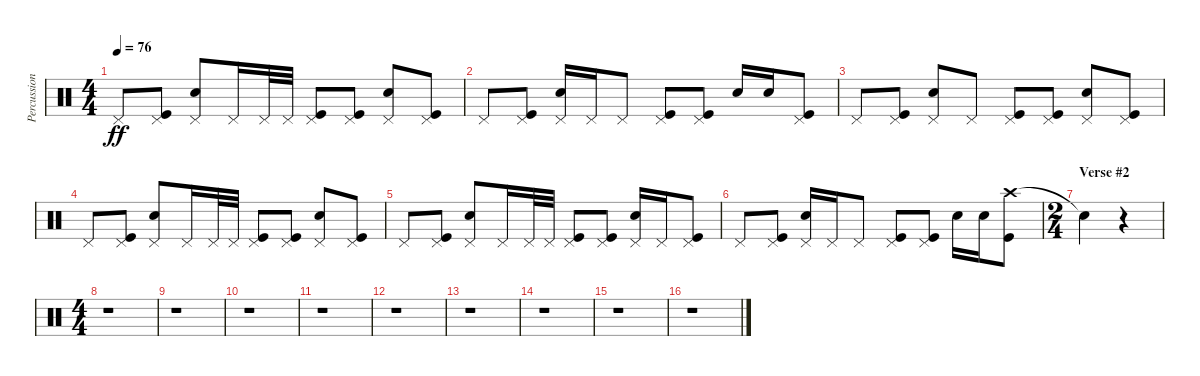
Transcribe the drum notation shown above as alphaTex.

\track ("Percussion" "Percussion") {instrument percussion}
\staff {score}
\articulation defaults
\ts (4 4)
\tempo 76
\clef neutral
\ks c "Pedal Hi-Hat (hit)".8{dy ff}
("Pedal Hi-Hat (hit)" "Kick (hit)").8 ("Pedal Hi-Hat (hit)" "Snare (hit) 2").8 "Pedal Hi-Hat (hit)".16 "Pedal Hi-Hat (hit)".32 "Pedal Hi-Hat (hit)".32 ("Pedal Hi-Hat (hit)" "Kick (hit)").8 ("Pedal Hi-Hat (hit)" "Kick (hit)").8 ("Pedal Hi-Hat (hit)" "Snare (hit) 2").8 ("Pedal Hi-Hat (hit)" "Kick (hit)").8 |
"Pedal Hi-Hat (hit)".8 ("Pedal Hi-Hat (hit)" "Kick (hit)").8 ("Pedal Hi-Hat (hit)" "Snare (hit) 2").16 "Pedal Hi-Hat (hit)".16 "Pedal Hi-Hat (hit)".8 ("Pedal Hi-Hat (hit)" "Kick (hit)").8 ("Pedal Hi-Hat (hit)" "Kick (hit)").8 "Snare (hit) 2".16 "Snare (hit) 2".16 ("Pedal Hi-Hat (hit)" "Kick (hit)").8 |
"Pedal Hi-Hat (hit)".8 ("Pedal Hi-Hat (hit)" "Kick (hit)").8 ("Pedal Hi-Hat (hit)" "Snare (hit) 2").8 "Pedal Hi-Hat (hit)".8 ("Pedal Hi-Hat (hit)" "Kick (hit)").8 ("Pedal Hi-Hat (hit)" "Kick (hit)").8 ("Pedal Hi-Hat (hit)" "Snare (hit) 2").8 ("Pedal Hi-Hat (hit)" "Kick (hit)").8 |
"Pedal Hi-Hat (hit)".8 ("Pedal Hi-Hat (hit)" "Kick (hit)").8 ("Pedal Hi-Hat (hit)" "Snare (hit) 2").8 "Pedal Hi-Hat (hit)".16 "Pedal Hi-Hat (hit)".32 "Pedal Hi-Hat (hit)".32 ("Pedal Hi-Hat (hit)" "Kick (hit)").8 ("Pedal Hi-Hat (hit)" "Kick (hit)").8 ("Pedal Hi-Hat (hit)" "Snare (hit) 2").8 ("Pedal Hi-Hat (hit)" "Kick (hit)").8 |
"Pedal Hi-Hat (hit)".8 ("Pedal Hi-Hat (hit)" "Kick (hit)").8 ("Pedal Hi-Hat (hit)" "Snare (hit) 2").8 "Pedal Hi-Hat (hit)".16 "Pedal Hi-Hat (hit)".32 "Pedal Hi-Hat (hit)".32 ("Pedal Hi-Hat (hit)" "Kick (hit)").8 ("Pedal Hi-Hat (hit)" "Kick (hit)").8 ("Pedal Hi-Hat (hit)" "Snare (hit) 2").16 "Pedal Hi-Hat (hit)".16 ("Pedal Hi-Hat (hit)" "Kick (hit)").8 |
"Pedal Hi-Hat (hit)".8 ("Pedal Hi-Hat (hit)" "Kick (hit)").8 ("Pedal Hi-Hat (hit)" "Snare (hit) 2").16 "Pedal Hi-Hat (hit)".16 "Pedal Hi-Hat (hit)".8 ("Pedal Hi-Hat (hit)" "Kick (hit)").8 ("Pedal Hi-Hat (hit)" "Kick (hit)").8 "Snare (hit) 2".16 "Snare (hit) 2".16 ("Crash high (hit)" "Kick (hit)").8 |
\ts (2 4)
\section ("" "Verse #2")
"Snare (hit)"{t}.4 r.4 |
\ts (4 4)
r.1 |
r.1 |
r.1 |
r.1 |
r.1 |
r.1 |
r.1 |
r.1 |
r.1
